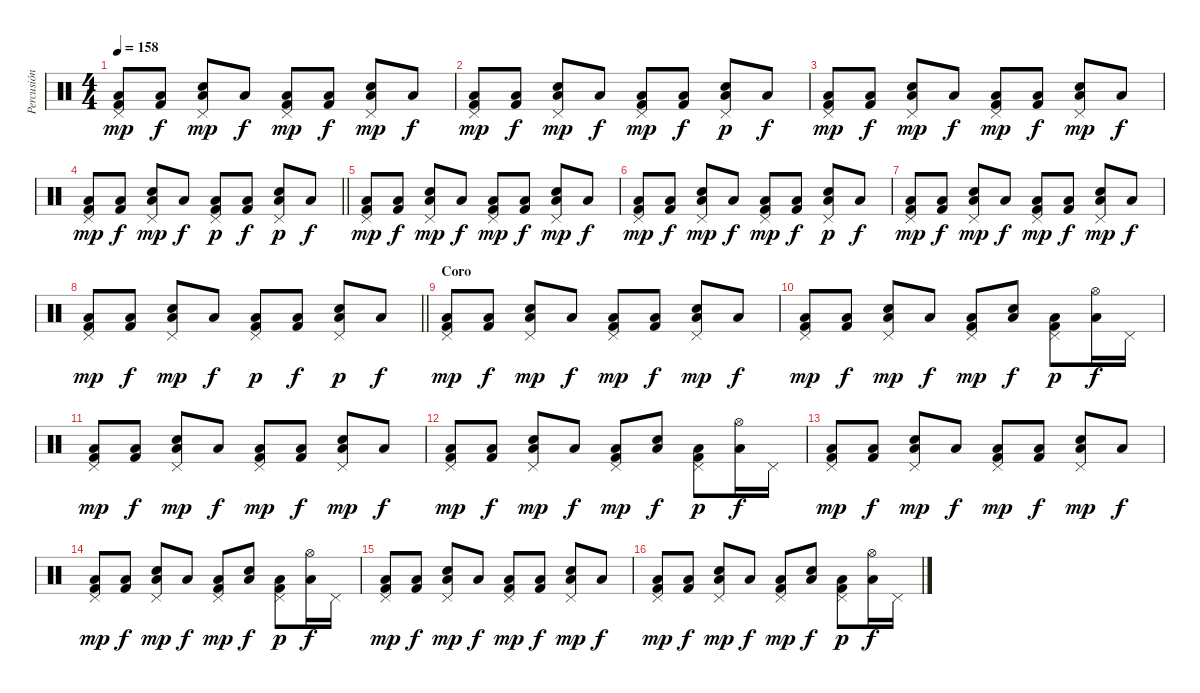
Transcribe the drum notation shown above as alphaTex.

\track ("Percusión" "Percusión") {instrument percussion}
\staff {score}
\articulation defaults
\ts (4 4)
\tempo 158
\clef neutral
\ks c
("Pedal Hi-Hat (hit)" "Low Floor Tom (hit)" "Kick (hit) 2").8{dy mp} ("Low Floor Tom (hit)" "Kick (hit) 2").8{dy f} ("Pedal Hi-Hat (hit)" "Low Floor Tom (hit)" "Electric Snare (hit)").8{dy mp} "Low Floor Tom (hit)".8{dy f} ("Pedal Hi-Hat (hit)" "Low Floor Tom (hit)" "Kick (hit) 2").8{dy mp} ("Low Floor Tom (hit)" "Kick (hit) 2").8{dy f} ("Pedal Hi-Hat (hit)" "Low Floor Tom (hit)" "Electric Snare (hit)").8{dy mp} "Low Floor Tom (hit)".8{dy f} |
("Pedal Hi-Hat (hit)" "Low Floor Tom (hit)" "Kick (hit) 2").8{dy mp} ("Low Floor Tom (hit)" "Kick (hit) 2").8{dy f} ("Pedal Hi-Hat (hit)" "Low Floor Tom (hit)" "Electric Snare (hit)").8{dy mp} "Low Floor Tom (hit)".8{dy f} ("Pedal Hi-Hat (hit)" "Low Floor Tom (hit)" "Kick (hit) 2").8{dy mp} ("Low Floor Tom (hit)" "Kick (hit) 2").8{dy f} ("Pedal Hi-Hat (hit)" "Low Floor Tom (hit)" "Electric Snare (hit)").8{dy p} "Low Floor Tom (hit)".8{dy f} |
("Pedal Hi-Hat (hit)" "Low Floor Tom (hit)" "Kick (hit) 2").8{dy mp} ("Low Floor Tom (hit)" "Kick (hit) 2").8{dy f} ("Pedal Hi-Hat (hit)" "Low Floor Tom (hit)" "Electric Snare (hit)").8{dy mp} "Low Floor Tom (hit)".8{dy f} ("Pedal Hi-Hat (hit)" "Low Floor Tom (hit)" "Kick (hit) 2").8{dy mp} ("Low Floor Tom (hit)" "Kick (hit) 2").8{dy f} ("Pedal Hi-Hat (hit)" "Low Floor Tom (hit)" "Electric Snare (hit)").8{dy mp} "Low Floor Tom (hit)".8{dy f} |
\barLineRight lightlight
("Pedal Hi-Hat (hit)" "Low Floor Tom (hit)" "Kick (hit) 2").8{dy mp} ("Low Floor Tom (hit)" "Kick (hit) 2").8{dy f} ("Pedal Hi-Hat (hit)" "Low Floor Tom (hit)" "Electric Snare (hit)").8{dy mp} "Low Floor Tom (hit)".8{dy f} ("Pedal Hi-Hat (hit)" "Low Floor Tom (hit)" "Kick (hit) 2").8{dy p} ("Low Floor Tom (hit)" "Kick (hit) 2").8{dy f} ("Pedal Hi-Hat (hit)" "Low Floor Tom (hit)" "Electric Snare (hit)").8{dy p} "Low Floor Tom (hit)".8{dy f} |
("Pedal Hi-Hat (hit)" "Low Floor Tom (hit)" "Kick (hit) 2").8{dy mp} ("Low Floor Tom (hit)" "Kick (hit) 2").8{dy f} ("Pedal Hi-Hat (hit)" "Low Floor Tom (hit)" "Electric Snare (hit)").8{dy mp} "Low Floor Tom (hit)".8{dy f} ("Pedal Hi-Hat (hit)" "Low Floor Tom (hit)" "Kick (hit) 2").8{dy mp} ("Low Floor Tom (hit)" "Kick (hit) 2").8{dy f} ("Pedal Hi-Hat (hit)" "Low Floor Tom (hit)" "Electric Snare (hit)").8{dy mp} "Low Floor Tom (hit)".8{dy f} |
("Pedal Hi-Hat (hit)" "Low Floor Tom (hit)" "Kick (hit) 2").8{dy mp} ("Low Floor Tom (hit)" "Kick (hit) 2").8{dy f} ("Pedal Hi-Hat (hit)" "Low Floor Tom (hit)" "Electric Snare (hit)").8{dy mp} "Low Floor Tom (hit)".8{dy f} ("Pedal Hi-Hat (hit)" "Low Floor Tom (hit)" "Kick (hit) 2").8{dy mp} ("Low Floor Tom (hit)" "Kick (hit) 2").8{dy f} ("Pedal Hi-Hat (hit)" "Low Floor Tom (hit)" "Electric Snare (hit)").8{dy p} "Low Floor Tom (hit)".8{dy f} |
("Pedal Hi-Hat (hit)" "Low Floor Tom (hit)" "Kick (hit) 2").8{dy mp} ("Low Floor Tom (hit)" "Kick (hit) 2").8{dy f} ("Pedal Hi-Hat (hit)" "Low Floor Tom (hit)" "Electric Snare (hit)").8{dy mp} "Low Floor Tom (hit)".8{dy f} ("Pedal Hi-Hat (hit)" "Low Floor Tom (hit)" "Kick (hit) 2").8{dy mp} ("Low Floor Tom (hit)" "Kick (hit) 2").8{dy f} ("Pedal Hi-Hat (hit)" "Low Floor Tom (hit)" "Electric Snare (hit)").8{dy mp} "Low Floor Tom (hit)".8{dy f} |
\barLineRight lightlight
("Pedal Hi-Hat (hit)" "Low Floor Tom (hit)" "Kick (hit) 2").8{dy mp} ("Low Floor Tom (hit)" "Kick (hit) 2").8{dy f} ("Pedal Hi-Hat (hit)" "Low Floor Tom (hit)" "Electric Snare (hit)").8{dy mp} "Low Floor Tom (hit)".8{dy f} ("Pedal Hi-Hat (hit)" "Low Floor Tom (hit)" "Kick (hit) 2").8{dy p} ("Low Floor Tom (hit)" "Kick (hit) 2").8{dy f} ("Pedal Hi-Hat (hit)" "Low Floor Tom (hit)" "Electric Snare (hit)").8{dy p} "Low Floor Tom (hit)".8{dy f} |
\section ("" "Coro")
("Pedal Hi-Hat (hit)" "Low Floor Tom (hit)" "Kick (hit) 2").8{dy mp} ("Low Floor Tom (hit)" "Kick (hit) 2").8{dy f} ("Pedal Hi-Hat (hit)" "Low Floor Tom (hit)" "Electric Snare (hit)").8{dy mp} "Low Floor Tom (hit)".8{dy f} ("Pedal Hi-Hat (hit)" "Low Floor Tom (hit)" "Kick (hit) 2").8{dy mp} ("Low Floor Tom (hit)" "Kick (hit) 2").8{dy f} ("Pedal Hi-Hat (hit)" "Low Floor Tom (hit)" "Electric Snare (hit)").8{dy mp} "Low Floor Tom (hit)".8{dy f} |
("Pedal Hi-Hat (hit)" "Low Floor Tom (hit)" "Kick (hit) 2").8{dy mp} ("Low Floor Tom (hit)" "Kick (hit) 2").8{dy f} ("Pedal Hi-Hat (hit)" "Low Floor Tom (hit)" "Electric Snare (hit)").8{dy mp} "Low Floor Tom (hit)".8{dy f} ("Pedal Hi-Hat (hit)" "Low Floor Tom (hit)" "Kick (hit) 2").8{dy mp} ("Low Floor Tom (hit)" "Electric Snare (hit)").8{dy f} ("Pedal Hi-Hat (hit)" "Low Floor Tom (hit)" "Kick (hit) 2").8{dy p} ("Hi-Hat (open)" "Low Floor Tom (hit)").16{dy f} "Pedal Hi-Hat (hit)".16 |
("Pedal Hi-Hat (hit)" "Low Floor Tom (hit)" "Kick (hit) 2").8{dy mp} ("Low Floor Tom (hit)" "Kick (hit) 2").8{dy f} ("Pedal Hi-Hat (hit)" "Low Floor Tom (hit)" "Electric Snare (hit)").8{dy mp} "Low Floor Tom (hit)".8{dy f} ("Pedal Hi-Hat (hit)" "Low Floor Tom (hit)" "Kick (hit) 2").8{dy mp} ("Low Floor Tom (hit)" "Kick (hit) 2").8{dy f} ("Pedal Hi-Hat (hit)" "Low Floor Tom (hit)" "Electric Snare (hit)").8{dy mp} "Low Floor Tom (hit)".8{dy f} |
("Pedal Hi-Hat (hit)" "Low Floor Tom (hit)" "Kick (hit) 2").8{dy mp} ("Low Floor Tom (hit)" "Kick (hit) 2").8{dy f} ("Pedal Hi-Hat (hit)" "Low Floor Tom (hit)" "Electric Snare (hit)").8{dy mp} "Low Floor Tom (hit)".8{dy f} ("Pedal Hi-Hat (hit)" "Low Floor Tom (hit)" "Kick (hit) 2").8{dy mp} ("Low Floor Tom (hit)" "Electric Snare (hit)").8{dy f} ("Pedal Hi-Hat (hit)" "Low Floor Tom (hit)" "Kick (hit) 2").8{dy p} ("Hi-Hat (open)" "Low Floor Tom (hit)").16{dy f} "Pedal Hi-Hat (hit)".16 |
("Pedal Hi-Hat (hit)" "Low Floor Tom (hit)" "Kick (hit) 2").8{dy mp} ("Low Floor Tom (hit)" "Kick (hit) 2").8{dy f} ("Pedal Hi-Hat (hit)" "Low Floor Tom (hit)" "Electric Snare (hit)").8{dy mp} "Low Floor Tom (hit)".8{dy f} ("Pedal Hi-Hat (hit)" "Low Floor Tom (hit)" "Kick (hit) 2").8{dy mp} ("Low Floor Tom (hit)" "Kick (hit) 2").8{dy f} ("Pedal Hi-Hat (hit)" "Low Floor Tom (hit)" "Electric Snare (hit)").8{dy mp} "Low Floor Tom (hit)".8{dy f} |
("Pedal Hi-Hat (hit)" "Low Floor Tom (hit)" "Kick (hit) 2").8{dy mp} ("Low Floor Tom (hit)" "Kick (hit) 2").8{dy f} ("Pedal Hi-Hat (hit)" "Low Floor Tom (hit)" "Electric Snare (hit)").8{dy mp} "Low Floor Tom (hit)".8{dy f} ("Pedal Hi-Hat (hit)" "Low Floor Tom (hit)" "Kick (hit) 2").8{dy mp} ("Low Floor Tom (hit)" "Electric Snare (hit)").8{dy f} ("Pedal Hi-Hat (hit)" "Low Floor Tom (hit)" "Kick (hit) 2").8{dy p} ("Hi-Hat (open)" "Low Floor Tom (hit)").16{dy f} "Pedal Hi-Hat (hit)".16 |
("Pedal Hi-Hat (hit)" "Low Floor Tom (hit)" "Kick (hit) 2").8{dy mp} ("Low Floor Tom (hit)" "Kick (hit) 2").8{dy f} ("Pedal Hi-Hat (hit)" "Low Floor Tom (hit)" "Electric Snare (hit)").8{dy mp} "Low Floor Tom (hit)".8{dy f} ("Pedal Hi-Hat (hit)" "Low Floor Tom (hit)" "Kick (hit) 2").8{dy mp} ("Low Floor Tom (hit)" "Kick (hit) 2").8{dy f} ("Pedal Hi-Hat (hit)" "Low Floor Tom (hit)" "Electric Snare (hit)").8{dy mp} "Low Floor Tom (hit)".8{dy f} |
("Pedal Hi-Hat (hit)" "Low Floor Tom (hit)" "Kick (hit) 2").8{dy mp} ("Low Floor Tom (hit)" "Kick (hit) 2").8{dy f} ("Pedal Hi-Hat (hit)" "Low Floor Tom (hit)" "Electric Snare (hit)").8{dy mp} "Low Floor Tom (hit)".8{dy f} ("Pedal Hi-Hat (hit)" "Low Floor Tom (hit)" "Kick (hit) 2").8{dy mp} ("Low Floor Tom (hit)" "Electric Snare (hit)").8{dy f} ("Pedal Hi-Hat (hit)" "Low Floor Tom (hit)" "Kick (hit) 2").8{dy p} ("Hi-Hat (open)" "Low Floor Tom (hit)").16{dy f} "Pedal Hi-Hat (hit)".16
